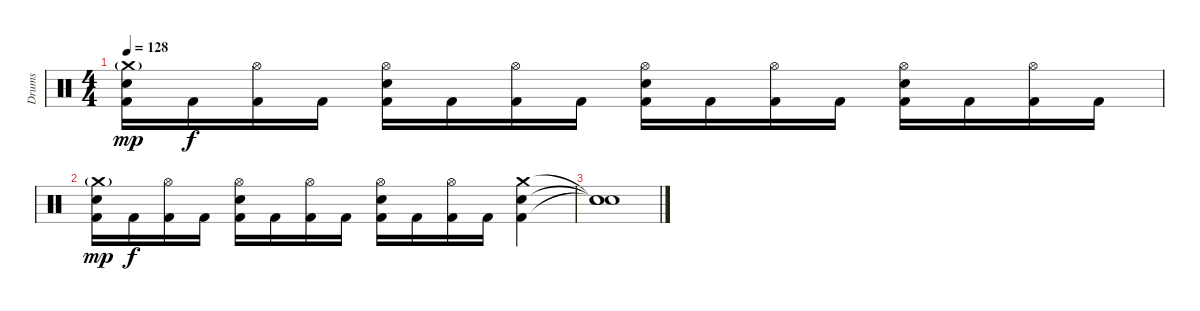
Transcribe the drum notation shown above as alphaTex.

\track ("Drums" "Drums") {instrument percussion}
\staff {score}
\articulation defaults
\ts (4 4)
\tempo 128
\clef neutral
\ks c
("Crash medium (hit)"{g} "Electric Snare (hit)" "Kick (hit) 2").16{dy mp} "Kick (hit) 2".16{dy f} ("Hi-Hat (open)" "Kick (hit) 2").16 "Kick (hit) 2".16 ("Hi-Hat (open)" "Electric Snare (hit)" "Kick (hit) 2").16 "Kick (hit) 2".16 ("Hi-Hat (open)" "Kick (hit) 2").16 "Kick (hit) 2".16 ("Hi-Hat (open)" "Electric Snare (hit)" "Kick (hit) 2").16 "Kick (hit) 2".16 ("Hi-Hat (open)" "Kick (hit) 2").16 "Kick (hit) 2".16 ("Hi-Hat (open)" "Electric Snare (hit)" "Kick (hit) 2").16 "Kick (hit) 2".16 ("Hi-Hat (open)" "Kick (hit) 2").16 "Kick (hit) 2".16 |
("Crash medium (hit)"{g} "Electric Snare (hit)" "Kick (hit) 2").16{dy mp} "Kick (hit) 2".16{dy f} ("Hi-Hat (open)" "Kick (hit) 2").16 "Kick (hit) 2".16 ("Hi-Hat (open)" "Electric Snare (hit)" "Kick (hit) 2").16 "Kick (hit) 2".16 ("Hi-Hat (open)" "Kick (hit) 2").16 "Kick (hit) 2".16 ("Hi-Hat (open)" "Electric Snare (hit)" "Kick (hit) 2").16 "Kick (hit) 2".16 ("Hi-Hat (open)" "Kick (hit) 2").16 "Kick (hit) 2".16 ("Crash medium (hit)" "Electric Snare (hit)" "Kick (hit) 2").4 |
("Snare (hit)"{t} "Snare (hit)"{t} "Snare (hit)"{t}).1
